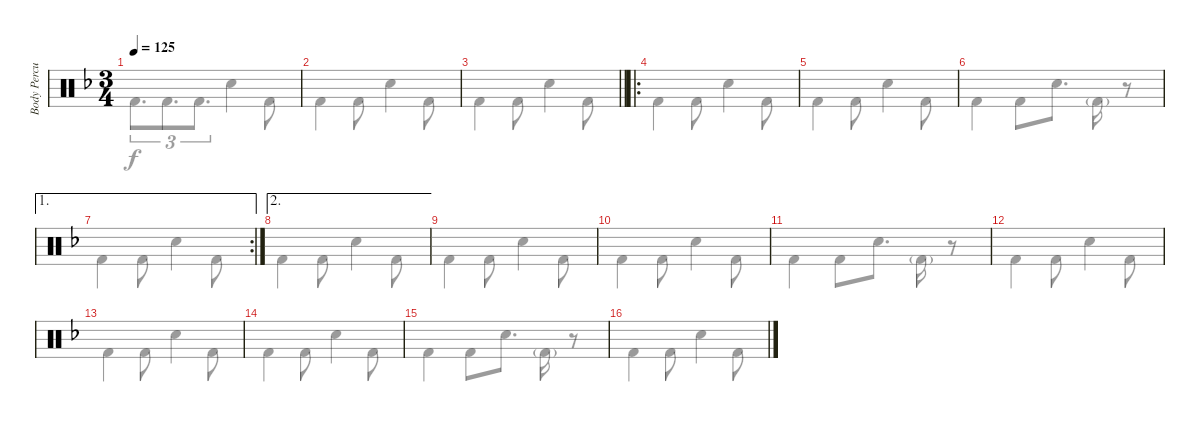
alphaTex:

\track ("Body Percussion" "Body Percu") {instrument percussion}
\staff {score}
\articulation defaults
\voice
\ts (3 4)
\tempo 125
\clef neutral
\ks dminor
|
|
\barLineRight lightlight
|
\ro
|
|
|
\ae 1
\rc 2
|
\ae 2
|
|
|
|
|
|
|
|
\voice
\clef neutral
\ks dminor "Kick (hit) 2".8{d tu (3 2) dy f} "Kick (hit) 2".8{d tu (3 2)} "Kick (hit) 2".8{d tu (3 2)} "Snare (hit) 2".4 "Kick (hit) 2".8
|
"Kick (hit) 2".4 "Kick (hit) 2".8 "Snare (hit) 2".4 "Kick (hit) 2".8 |
\barLineRight lightlight "Kick (hit) 2".4 "Kick (hit) 2".8 "Snare (hit) 2".4 "Kick (hit) 2".8
|
"Kick (hit) 2".4 "Kick (hit) 2".8 "Snare (hit) 2".4 "Kick (hit) 2".8 |
"Kick (hit) 2".4 "Kick (hit) 2".8 "Snare (hit) 2".4 "Kick (hit) 2".8 |
"Kick (hit) 2".4 "Kick (hit) 2".8 "Snare (hit) 2".8{d} "Kick (hit) 2"{g}.16 r.8 |
"Kick (hit) 2".4 "Kick (hit) 2".8 "Snare (hit) 2".4 "Kick (hit) 2".8 |
"Kick (hit) 2".4 "Kick (hit) 2".8 "Snare (hit) 2".4 "Kick (hit) 2".8 |
"Kick (hit) 2".4 "Kick (hit) 2".8 "Snare (hit) 2".4 "Kick (hit) 2".8 |
"Kick (hit) 2".4 "Kick (hit) 2".8 "Snare (hit) 2".4 "Kick (hit) 2".8 |
"Kick (hit) 2".4 "Kick (hit) 2".8 "Snare (hit) 2".8{d} "Kick (hit) 2"{g}.16 r.8 |
"Kick (hit) 2".4 "Kick (hit) 2".8 "Snare (hit) 2".4 "Kick (hit) 2".8 |
"Kick (hit) 2".4 "Kick (hit) 2".8 "Snare (hit) 2".4 "Kick (hit) 2".8 |
"Kick (hit) 2".4 "Kick (hit) 2".8 "Snare (hit) 2".4 "Kick (hit) 2".8 |
"Kick (hit) 2".4 "Kick (hit) 2".8 "Snare (hit) 2".8{d} "Kick (hit) 2"{g}.16 r.8 |
"Kick (hit) 2".4 "Kick (hit) 2".8 "Snare (hit) 2".4 "Kick (hit) 2".8
